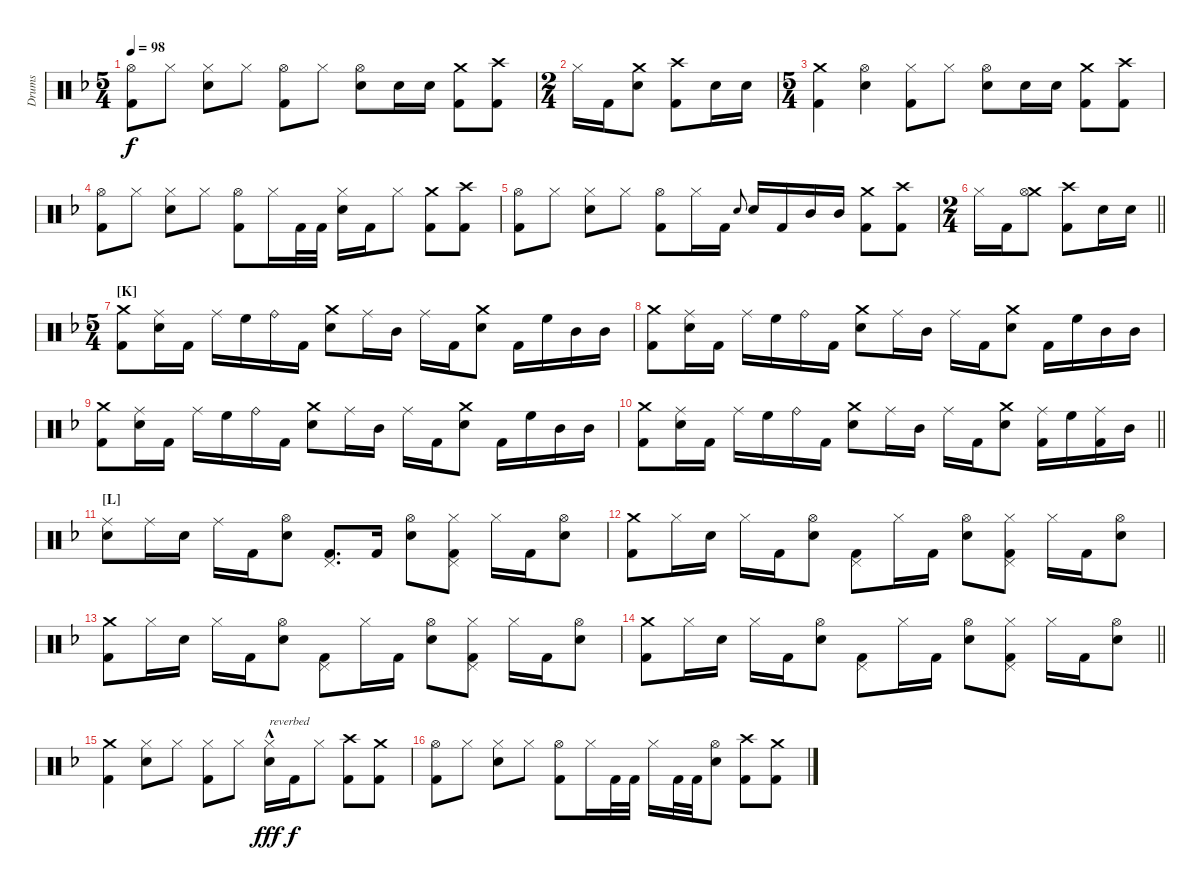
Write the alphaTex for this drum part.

\track ("Drums" "Drums") {instrument percussion}
\staff {score}
\articulation defaults
\ts (5 4)
\tempo 98
\clef neutral
\ks dminor
("Hi-Hat (open)" "Kick (hit) 2").8{dy f} "Hi-Hat (closed)".8{beam split} ("Hi-Hat (closed)" "Electric Snare (hit)").8 "Hi-Hat (closed)".8{beam split} ("Hi-Hat (open)" "Kick (hit) 2").8 "Hi-Hat (closed)".8 ("Hi-Hat (open)" "Electric Snare (hit)").8 "Electric Snare (hit)".16 "Electric Snare (hit)".16 ("Crash medium (hit)" "Kick (hit) 2").8 ("Crash high (hit)" "Kick (hit) 2").8 |
\ts (2 4)
"Hi-Hat (closed)".16 "Kick (hit) 2".16 ("Crash medium (hit)" "Electric Snare (hit)").8 ("Crash high (hit)" "Kick (hit) 2").8 "Electric Snare (hit)".16 "Electric Snare (hit)".16 |
\ts (5 4)
("Crash medium (hit)" "Kick (hit) 2").4 ("Hi-Hat (open)" "Electric Snare (hit)").4 ("Hi-Hat (closed)" "Kick (hit) 2").8 "Hi-Hat (closed)".8 ("Hi-Hat (open)" "Electric Snare (hit)").8 "Electric Snare (hit)".16 "Electric Snare (hit)".16 ("Crash medium (hit)" "Kick (hit) 2").8 ("Crash high (hit)" "Kick (hit) 2").8 |
("Hi-Hat (open)" "Kick (hit) 2").8 "Hi-Hat (closed)".8 ("Hi-Hat (closed)" "Electric Snare (hit)").8 "Hi-Hat (closed)".8 ("Hi-Hat (open)" "Kick (hit) 2").8 "Hi-Hat (closed)".16 "Kick (hit) 2".32 "Kick (hit) 2".32 ("Hi-Hat (closed)" "Electric Snare (hit)").16 "Kick (hit) 2".16 "Hi-Hat (closed)".8 ("Crash medium (hit)" "Kick (hit) 2").8 ("Crash high (hit)" "Kick (hit) 2").8 |
("Hi-Hat (open)" "Kick (hit) 2").8 "Hi-Hat (closed)".8 ("Hi-Hat (closed)" "Electric Snare (hit)").8 "Hi-Hat (closed)".8 ("Hi-Hat (open)" "Kick (hit) 2").8 "Hi-Hat (closed)".16 "Kick (hit) 2".16 "Electric Snare (hit)".8{gr onbeat} "Electric Snare (hit)".16 "Kick (hit) 2".16 "Mid Tom (hit)".16 "Mid Tom (hit)".16 ("Crash medium (hit)" "Kick (hit) 2").8 ("Crash high (hit)" "Kick (hit) 2").8 |
\ts (2 4)
\barLineRight lightlight "Hi-Hat (closed)".16 "Kick (hit) 2".16
("Crash medium (hit)" "Hi-Hat (open)").8 ("Crash high (hit)" "Kick (hit) 2").8 "Electric Snare (hit)".16 "Electric Snare (hit)".16 |
\ts (5 4)
\section ("" "[K]")
("Crash medium (hit)" "Kick (hit) 2").8 ("Ride (middle)" "Electric Snare (hit)").16 "Kick (hit) 2".16 "Ride (middle)".16 "High Floor Tom (hit)".16 "Ride (bell)".16 "Kick (hit) 2".16 ("Crash medium (hit)" "Electric Snare (hit)").8 "Ride (middle)".16 "Mid Tom (hit)".16 "Ride (middle)".16 "Kick (hit) 2".16 ("Crash medium (hit)" "Electric Snare (hit)").8 "Kick (hit) 2".16 "High Floor Tom (hit)".16 "Mid Tom (hit)".16 "Mid Tom (hit)".16 |
("Crash medium (hit)" "Kick (hit) 2").8 ("Ride (middle)" "Electric Snare (hit)").16 "Kick (hit) 2".16 "Ride (middle)".16 "High Floor Tom (hit)".16 "Ride (bell)".16 "Kick (hit) 2".16 ("Crash medium (hit)" "Electric Snare (hit)").8 "Ride (middle)".16 "Mid Tom (hit)".16 "Ride (middle)".16 "Kick (hit) 2".16 ("Crash medium (hit)" "Electric Snare (hit)").8 "Kick (hit) 2".16 "High Floor Tom (hit)".16 "Mid Tom (hit)".16 "Mid Tom (hit)".16 |
("Crash medium (hit)" "Kick (hit) 2").8 ("Ride (middle)" "Electric Snare (hit)").16 "Kick (hit) 2".16 "Ride (middle)".16 "High Floor Tom (hit)".16 "Ride (bell)".16 "Kick (hit) 2".16 ("Crash medium (hit)" "Electric Snare (hit)").8 "Ride (middle)".16 "Mid Tom (hit)".16 "Ride (middle)".16 "Kick (hit) 2".16 ("Crash medium (hit)" "Electric Snare (hit)").8 "Kick (hit) 2".16 "High Floor Tom (hit)".16 "Mid Tom (hit)".16 "Mid Tom (hit)".16 |
\barLineRight lightlight
("Crash medium (hit)" "Kick (hit) 2").8 ("Ride (middle)" "Electric Snare (hit)").16 "Kick (hit) 2".16 "Ride (middle)".16 "High Floor Tom (hit)".16 "Ride (bell)".16 "Kick (hit) 2".16 ("Crash medium (hit)" "Electric Snare (hit)").8 "Ride (middle)".16 "Mid Tom (hit)".16 "Ride (middle)".16 "Kick (hit) 2".16 ("Crash medium (hit)" "Electric Snare (hit)").8 ("Ride (middle)" "Kick (hit) 2").16 "High Floor Tom (hit)".16 ("Ride (middle)" "Kick (hit) 2").16 "Mid Tom (hit)".16 |
\section ("" "[L]")
("Ride (middle)" "Electric Snare (hit)").8 "Ride (middle)".16 "Electric Snare (hit)".16 "Ride (middle)".16 "Kick (hit) 2".16 ("Hi-Hat (open)" "Electric Snare (hit)").8 ("Pedal Hi-Hat (hit)" "Kick (hit) 2").8{d} "Kick (hit) 2".16 ("Hi-Hat (open)" "Electric Snare (hit)").8 ("Hi-Hat (closed)" "Pedal Hi-Hat (hit)" "Kick (hit) 2").8 "Hi-Hat (closed)".16 "Kick (hit) 2".16 ("Hi-Hat (open)" "Electric Snare (hit)").8 |
("Crash medium (hit)" "Kick (hit) 2").8 "Hi-Hat (closed)".16 "Electric Snare (hit)".16 "Hi-Hat (closed)".16 "Kick (hit) 2".16 ("Hi-Hat (open)" "Electric Snare (hit)").8 ("Pedal Hi-Hat (hit)" "Kick (hit) 2").8 "Hi-Hat (closed)".16 "Kick (hit) 2".16 ("Hi-Hat (open)" "Electric Snare (hit)").8 ("Hi-Hat (closed)" "Pedal Hi-Hat (hit)" "Kick (hit) 2").8 "Hi-Hat (closed)".16 "Kick (hit) 2".16 ("Hi-Hat (open)" "Electric Snare (hit)").8 |
("Crash medium (hit)" "Kick (hit) 2").8 "Hi-Hat (closed)".16 "Electric Snare (hit)".16 "Hi-Hat (closed)".16 "Kick (hit) 2".16 ("Hi-Hat (open)" "Electric Snare (hit)").8 ("Pedal Hi-Hat (hit)" "Kick (hit) 2").8 "Hi-Hat (closed)".16 "Kick (hit) 2".16 ("Hi-Hat (open)" "Electric Snare (hit)").8 ("Hi-Hat (closed)" "Pedal Hi-Hat (hit)" "Kick (hit) 2").8 "Hi-Hat (closed)".16 "Kick (hit) 2".16 ("Hi-Hat (open)" "Electric Snare (hit)").8 |
\barLineRight lightlight
("Crash medium (hit)" "Kick (hit) 2").8 "Hi-Hat (closed)".16 "Electric Snare (hit)".16 "Hi-Hat (closed)".16 "Kick (hit) 2".16 ("Hi-Hat (open)" "Electric Snare (hit)").8 ("Pedal Hi-Hat (hit)" "Kick (hit) 2").8 "Hi-Hat (closed)".16 "Kick (hit) 2".16 ("Hi-Hat (open)" "Electric Snare (hit)").8 ("Hi-Hat (closed)" "Pedal Hi-Hat (hit)" "Kick (hit) 2").8 "Hi-Hat (closed)".16 "Kick (hit) 2".16 ("Hi-Hat (open)" "Electric Snare (hit)").8 |
("Crash medium (hit)" "Kick (hit) 2").4 ("Hi-Hat (closed)" "Electric Snare (hit)").8 "Hi-Hat (closed)".8 ("Hi-Hat (closed)" "Kick (hit) 2").8 "Hi-Hat (closed)".8 ("Hi-Hat (closed)" "Snare (hit) 2"{hac}).16{txt "reverbed" dy fff} "Kick (hit) 2".16{dy f} "Hi-Hat (closed)".8 ("Crash high (hit)" "Kick (hit) 2").8 ("Crash medium (hit)" "Kick (hit) 2").8 |
("Hi-Hat (open)" "Kick (hit) 2").8 "Hi-Hat (closed)".8 ("Hi-Hat (closed)" "Electric Snare (hit)").8 "Hi-Hat (closed)".8 ("Hi-Hat (open)" "Kick (hit) 2").8 "Hi-Hat (closed)".16 "Kick (hit) 2".32 "Kick (hit) 2".32 "Hi-Hat (closed)".16 "Kick (hit) 2".32 "Kick (hit) 2".32 ("Hi-Hat (open)" "Electric Snare (hit)").8 ("Crash high (hit)" "Kick (hit) 2").8 ("Crash medium (hit)" "Kick (hit) 2").8
